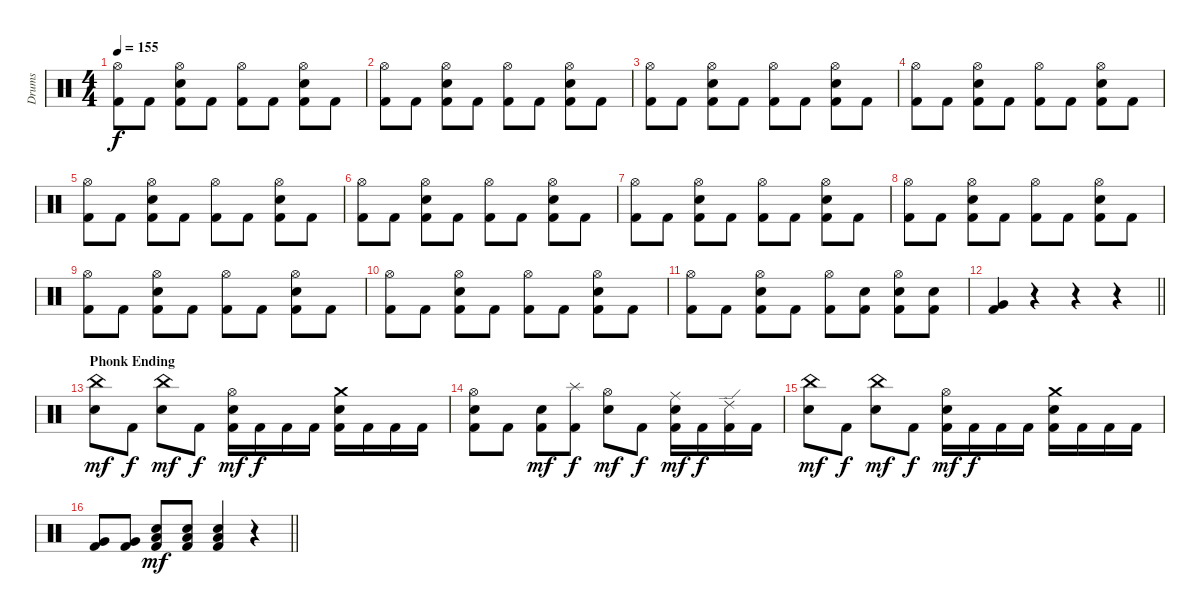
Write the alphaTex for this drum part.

\track ("Drums" "Drums") {instrument percussion}
\staff {score}
\articulation defaults
\ts (4 4)
\tempo 155
\clef neutral
\ks c
("Hi-Hat (open)" "Kick (hit) 2").8{dy f} "Kick (hit) 2".8 ("Hi-Hat (open)" "Snare (hit) 2" "Kick (hit) 2").8 "Kick (hit) 2".8 ("Hi-Hat (open)" "Kick (hit) 2").8 "Kick (hit) 2".8 ("Hi-Hat (open)" "Snare (hit) 2" "Kick (hit) 2").8 "Kick (hit) 2".8 |
("Hi-Hat (open)" "Kick (hit) 2").8 "Kick (hit) 2".8 ("Hi-Hat (open)" "Snare (hit) 2" "Kick (hit) 2").8 "Kick (hit) 2".8 ("Hi-Hat (open)" "Kick (hit) 2").8 "Kick (hit) 2".8 ("Hi-Hat (open)" "Snare (hit) 2" "Kick (hit) 2").8 "Kick (hit) 2".8 |
("Hi-Hat (open)" "Kick (hit) 2").8 "Kick (hit) 2".8 ("Hi-Hat (open)" "Snare (hit) 2" "Kick (hit) 2").8 "Kick (hit) 2".8 ("Hi-Hat (open)" "Kick (hit) 2").8 "Kick (hit) 2".8 ("Hi-Hat (open)" "Snare (hit) 2" "Kick (hit) 2").8 "Kick (hit) 2".8 |
("Hi-Hat (open)" "Kick (hit) 2").8 "Kick (hit) 2".8 ("Hi-Hat (open)" "Snare (hit) 2" "Kick (hit) 2").8 "Kick (hit) 2".8 ("Hi-Hat (open)" "Kick (hit) 2").8 "Kick (hit) 2".8 ("Hi-Hat (open)" "Snare (hit) 2" "Kick (hit) 2").8 "Kick (hit) 2".8 |
("Hi-Hat (open)" "Kick (hit) 2").8 "Kick (hit) 2".8 ("Hi-Hat (open)" "Snare (hit) 2" "Kick (hit) 2").8 "Kick (hit) 2".8 ("Hi-Hat (open)" "Kick (hit) 2").8 "Kick (hit) 2".8 ("Hi-Hat (open)" "Snare (hit) 2" "Kick (hit) 2").8 "Kick (hit) 2".8 |
("Hi-Hat (open)" "Kick (hit) 2").8 "Kick (hit) 2".8 ("Hi-Hat (open)" "Snare (hit) 2" "Kick (hit) 2").8 "Kick (hit) 2".8 ("Hi-Hat (open)" "Kick (hit) 2").8 "Kick (hit) 2".8 ("Hi-Hat (open)" "Snare (hit) 2" "Kick (hit) 2").8 "Kick (hit) 2".8 |
("Hi-Hat (open)" "Kick (hit) 2").8 "Kick (hit) 2".8 ("Hi-Hat (open)" "Snare (hit) 2" "Kick (hit) 2").8 "Kick (hit) 2".8 ("Hi-Hat (open)" "Kick (hit) 2").8 "Kick (hit) 2".8 ("Hi-Hat (open)" "Snare (hit) 2" "Kick (hit) 2").8 "Kick (hit) 2".8 |
("Hi-Hat (open)" "Kick (hit) 2").8 "Kick (hit) 2".8 ("Hi-Hat (open)" "Snare (hit) 2" "Kick (hit) 2").8 "Kick (hit) 2".8 ("Hi-Hat (open)" "Kick (hit) 2").8 "Kick (hit) 2".8 ("Hi-Hat (open)" "Snare (hit) 2" "Kick (hit) 2").8 "Kick (hit) 2".8 |
("Hi-Hat (open)" "Kick (hit) 2").8 "Kick (hit) 2".8 ("Hi-Hat (open)" "Snare (hit) 2" "Kick (hit) 2").8 "Kick (hit) 2".8 ("Hi-Hat (open)" "Kick (hit) 2").8 "Kick (hit) 2".8 ("Hi-Hat (open)" "Snare (hit) 2" "Kick (hit) 2").8 "Kick (hit) 2".8 |
("Hi-Hat (open)" "Kick (hit) 2").8 "Kick (hit) 2".8 ("Hi-Hat (open)" "Snare (hit) 2" "Kick (hit) 2").8 "Kick (hit) 2".8 ("Hi-Hat (open)" "Kick (hit) 2").8 "Kick (hit) 2".8 ("Hi-Hat (open)" "Snare (hit) 2" "Kick (hit) 2").8 "Kick (hit) 2".8 |
("Hi-Hat (open)" "Kick (hit) 2").8 "Kick (hit) 2".8 ("Hi-Hat (open)" "Snare (hit) 2" "Kick (hit) 2").8 "Kick (hit) 2".8 ("Hi-Hat (open)" "Kick (hit) 2").8 ("Snare (hit) 2" "Kick (hit) 2").8 ("Hi-Hat (open)" "Snare (hit) 2" "Kick (hit) 2").8 ("Snare (hit) 2" "Kick (hit) 2").8 |
\barLineRight lightlight
("Very Low Tom (hit)" "Kick (hit) 2").4 r.4 r.4 r.4 |
\section ("" "Phonk Ending")
("China (hit)" "Snare (hit) 2").8{dy mf} "Kick (hit) 2".8{dy f} ("China (hit)" "Snare (hit) 2").8{dy mf} "Kick (hit) 2".8{dy f} ("Hi-Hat (open)" "Snare (hit) 2" "Kick (hit) 2").16{dy mf} "Kick (hit) 2".16{dy f} "Kick (hit) 2".16 "Kick (hit) 2".16 ("Crash medium (hit)" "Snare (hit) 2" "Kick (hit) 2").16 "Kick (hit) 2".16 "Kick (hit) 2".16 "Kick (hit) 2".16 |
("Hi-Hat (open)" "Snare (hit) 2" "Kick (hit) 2").8 "Kick (hit) 2".8 ("Snare (hit) 2" "Kick (hit) 2").8{dy mf} ("Splash (hit)" "Kick (hit) 2").8{dy f} ("Hi-Hat (open)" "Snare (hit) 2").8{dy mf} "Kick (hit) 2".8{dy f} ("Ride (middle)" "Snare (hit) 2" "Kick (hit) 2").16{dy mf} "Kick (hit) 2".16{dy f} ("Ride (edge) 2" "Kick (hit) 2").16 "Kick (hit) 2".16 |
("China (hit)" "Snare (hit) 2").8{dy mf} "Kick (hit) 2".8{dy f} ("China (hit)" "Snare (hit) 2").8{dy mf} "Kick (hit) 2".8{dy f} ("Hi-Hat (open)" "Snare (hit) 2" "Kick (hit) 2").16{dy mf} "Kick (hit) 2".16{dy f} "Kick (hit) 2".16 "Kick (hit) 2".16 ("Crash medium (hit)" "Snare (hit) 2" "Kick (hit) 2").16 "Kick (hit) 2".16 "Kick (hit) 2".16 "Kick (hit) 2".16 |
\barLineRight lightlight
("Very Low Tom (hit)" "Kick (hit) 2").8 ("Very Low Tom (hit)" "Kick (hit) 2").8 ("Low Floor Tom (hit)" "Snare (hit) 2" "Kick (hit) 2").8{dy mf} ("Low Floor Tom (hit)" "Snare (hit) 2" "Kick (hit) 2").8 ("Low Floor Tom (hit)" "Snare (hit) 2" "Kick (hit) 2").4 r.4
